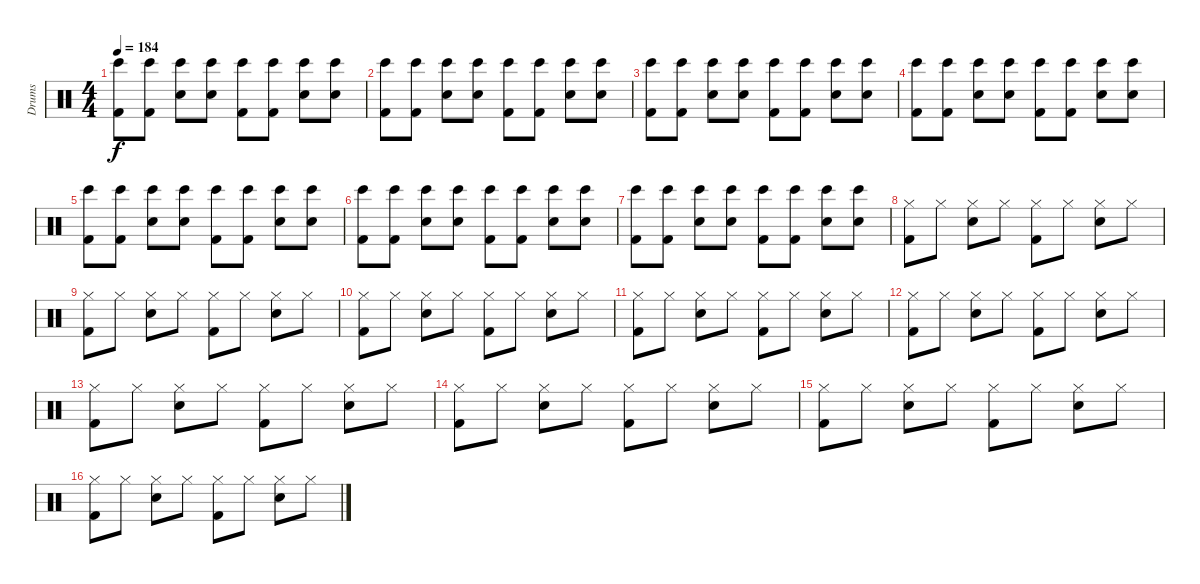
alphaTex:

\track ("Drums" "Drums") {instrument percussion}
\staff {score}
\articulation defaults
\ts (4 4)
\tempo 184
\clef neutral
\ks c
("Bongo High (hit)" "Kick (hit) 2").8{dy f} ("Bongo High (hit)" "Kick (hit) 2").8 ("Bongo High (hit)" "Snare (hit) 2").8 ("Bongo High (hit)" "Snare (hit) 2").8 ("Bongo High (hit)" "Kick (hit) 2").8 ("Bongo High (hit)" "Kick (hit) 2").8 ("Bongo High (hit)" "Snare (hit) 2").8 ("Bongo High (hit)" "Snare (hit) 2").8 |
("Bongo High (hit)" "Kick (hit) 2").8 ("Bongo High (hit)" "Kick (hit) 2").8 ("Bongo High (hit)" "Snare (hit) 2").8 ("Bongo High (hit)" "Snare (hit) 2").8 ("Bongo High (hit)" "Kick (hit) 2").8 ("Bongo High (hit)" "Kick (hit) 2").8 ("Bongo High (hit)" "Snare (hit) 2").8 ("Bongo High (hit)" "Snare (hit) 2").8 |
("Bongo High (hit)" "Kick (hit) 2").8 ("Bongo High (hit)" "Kick (hit) 2").8 ("Bongo High (hit)" "Snare (hit) 2").8 ("Bongo High (hit)" "Snare (hit) 2").8 ("Bongo High (hit)" "Kick (hit) 2").8 ("Bongo High (hit)" "Kick (hit) 2").8 ("Bongo High (hit)" "Snare (hit) 2").8 ("Bongo High (hit)" "Snare (hit) 2").8 |
("Bongo High (hit)" "Kick (hit) 2").8 ("Bongo High (hit)" "Kick (hit) 2").8 ("Bongo High (hit)" "Snare (hit) 2").8 ("Bongo High (hit)" "Snare (hit) 2").8 ("Bongo High (hit)" "Kick (hit) 2").8 ("Bongo High (hit)" "Kick (hit) 2").8 ("Bongo High (hit)" "Snare (hit) 2").8 ("Bongo High (hit)" "Snare (hit) 2").8 |
("Bongo High (hit)" "Kick (hit) 2").8 ("Bongo High (hit)" "Kick (hit) 2").8 ("Bongo High (hit)" "Snare (hit) 2").8 ("Bongo High (hit)" "Snare (hit) 2").8 ("Bongo High (hit)" "Kick (hit) 2").8 ("Bongo High (hit)" "Kick (hit) 2").8 ("Bongo High (hit)" "Snare (hit) 2").8 ("Bongo High (hit)" "Snare (hit) 2").8 |
("Bongo High (hit)" "Kick (hit) 2").8 ("Bongo High (hit)" "Kick (hit) 2").8 ("Bongo High (hit)" "Snare (hit) 2").8 ("Bongo High (hit)" "Snare (hit) 2").8 ("Bongo High (hit)" "Kick (hit) 2").8 ("Bongo High (hit)" "Kick (hit) 2").8 ("Bongo High (hit)" "Snare (hit) 2").8 ("Bongo High (hit)" "Snare (hit) 2").8 |
("Bongo High (hit)" "Kick (hit) 2").8 ("Bongo High (hit)" "Kick (hit) 2").8 ("Bongo High (hit)" "Snare (hit) 2").8 ("Bongo High (hit)" "Snare (hit) 2").8 ("Bongo High (hit)" "Kick (hit) 2").8 ("Bongo High (hit)" "Kick (hit) 2").8 ("Bongo High (hit)" "Snare (hit) 2").8 ("Bongo High (hit)" "Snare (hit) 2").8 |
("Hi-Hat (closed)" "Kick (hit) 2").8 "Hi-Hat (closed)".8 ("Hi-Hat (closed)" "Snare (hit) 2").8 "Hi-Hat (closed)".8 ("Hi-Hat (closed)" "Kick (hit) 2").8 "Hi-Hat (closed)".8 ("Hi-Hat (closed)" "Snare (hit) 2").8 "Hi-Hat (closed)".8 |
("Hi-Hat (closed)" "Kick (hit) 2").8 "Hi-Hat (closed)".8 ("Hi-Hat (closed)" "Snare (hit) 2").8 "Hi-Hat (closed)".8 ("Hi-Hat (closed)" "Kick (hit) 2").8 "Hi-Hat (closed)".8 ("Hi-Hat (closed)" "Snare (hit) 2").8 "Hi-Hat (closed)".8 |
("Hi-Hat (closed)" "Kick (hit) 2").8 "Hi-Hat (closed)".8 ("Hi-Hat (closed)" "Snare (hit) 2").8 "Hi-Hat (closed)".8 ("Hi-Hat (closed)" "Kick (hit) 2").8 "Hi-Hat (closed)".8 ("Hi-Hat (closed)" "Snare (hit) 2").8 "Hi-Hat (closed)".8 |
("Hi-Hat (closed)" "Kick (hit) 2").8 "Hi-Hat (closed)".8 ("Hi-Hat (closed)" "Snare (hit) 2").8 "Hi-Hat (closed)".8 ("Hi-Hat (closed)" "Kick (hit) 2").8 "Hi-Hat (closed)".8 ("Hi-Hat (closed)" "Snare (hit) 2").8 "Hi-Hat (closed)".8 |
("Hi-Hat (closed)" "Kick (hit) 2").8 "Hi-Hat (closed)".8 ("Hi-Hat (closed)" "Snare (hit) 2").8 "Hi-Hat (closed)".8 ("Hi-Hat (closed)" "Kick (hit) 2").8 "Hi-Hat (closed)".8 ("Hi-Hat (closed)" "Snare (hit) 2").8 "Hi-Hat (closed)".8 |
("Hi-Hat (closed)" "Kick (hit) 2").8 "Hi-Hat (closed)".8 ("Hi-Hat (closed)" "Snare (hit) 2").8 "Hi-Hat (closed)".8 ("Hi-Hat (closed)" "Kick (hit) 2").8 "Hi-Hat (closed)".8 ("Hi-Hat (closed)" "Snare (hit) 2").8 "Hi-Hat (closed)".8 |
("Hi-Hat (closed)" "Kick (hit) 2").8 "Hi-Hat (closed)".8 ("Hi-Hat (closed)" "Snare (hit) 2").8 "Hi-Hat (closed)".8 ("Hi-Hat (closed)" "Kick (hit) 2").8 "Hi-Hat (closed)".8 ("Hi-Hat (closed)" "Snare (hit) 2").8 "Hi-Hat (closed)".8 |
("Hi-Hat (closed)" "Kick (hit) 2").8 "Hi-Hat (closed)".8 ("Hi-Hat (closed)" "Snare (hit) 2").8 "Hi-Hat (closed)".8 ("Hi-Hat (closed)" "Kick (hit) 2").8 "Hi-Hat (closed)".8 ("Hi-Hat (closed)" "Snare (hit) 2").8 "Hi-Hat (closed)".8 |
("Hi-Hat (closed)" "Kick (hit) 2").8 "Hi-Hat (closed)".8 ("Hi-Hat (closed)" "Snare (hit) 2").8 "Hi-Hat (closed)".8 ("Hi-Hat (closed)" "Kick (hit) 2").8 "Hi-Hat (closed)".8 ("Hi-Hat (closed)" "Snare (hit) 2").8 "Hi-Hat (closed)".8
